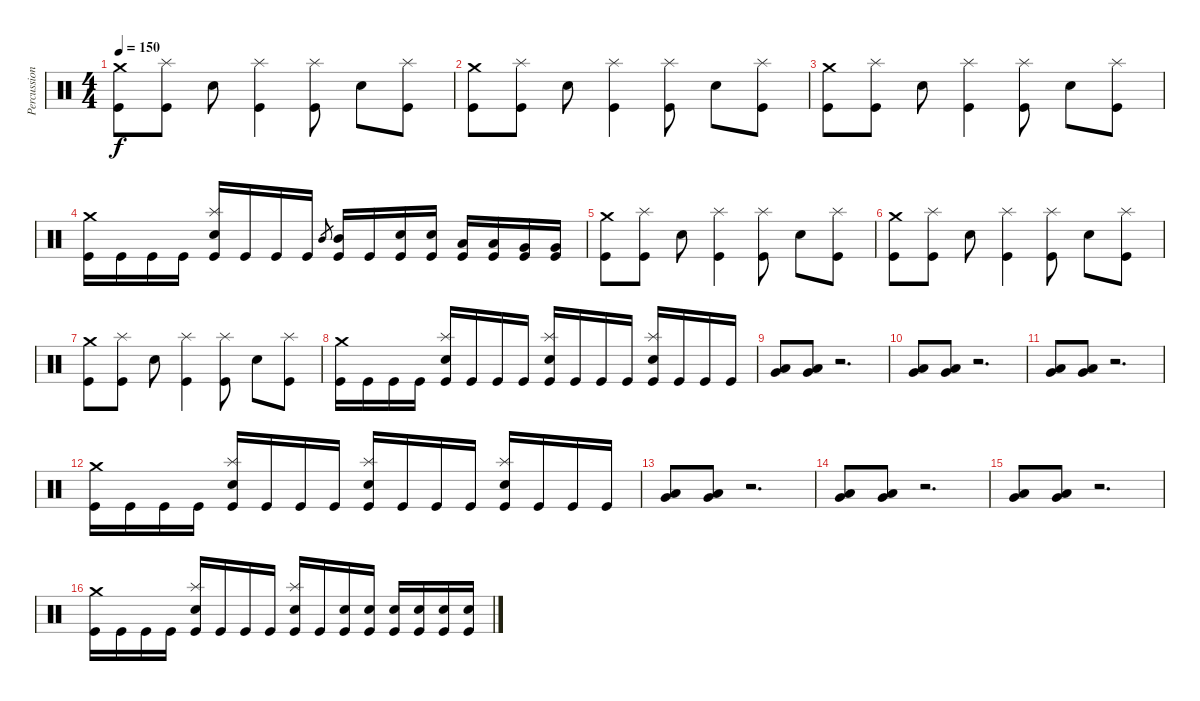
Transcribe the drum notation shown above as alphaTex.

\track ("Percussions" "Percussion") {instrument percussion}
\staff {score}
\articulation defaults
\ts (4 4)
\tempo 150
\clef neutral
\ks c
("Kick (hit)" "Crash medium (hit)").8{dy f} ("Kick (hit)" "Splash (hit)").8 "Electric Snare (hit)".8 ("Kick (hit)" "Splash (hit)").4 ("Kick (hit)" "Splash (hit)").8 "Electric Snare (hit)".8 ("Kick (hit)" "Splash (hit)").8 |
("Kick (hit)" "Crash medium (hit)").8 ("Kick (hit)" "Splash (hit)").8 "Electric Snare (hit)".8 ("Kick (hit)" "Splash (hit)").4 ("Kick (hit)" "Splash (hit)").8 "Electric Snare (hit)".8 ("Kick (hit)" "Splash (hit)").8 |
("Kick (hit)" "Crash medium (hit)").8 ("Kick (hit)" "Splash (hit)").8 "Electric Snare (hit)".8 ("Kick (hit)" "Splash (hit)").4 ("Kick (hit)" "Splash (hit)").8 "Electric Snare (hit)".8 ("Kick (hit)" "Splash (hit)").8 |
("Kick (hit)" "Crash medium (hit)").16 "Kick (hit)".16 "Kick (hit)".16 "Kick (hit)".16 ("Kick (hit)" "Electric Snare (hit)" "Splash (hit)").16 "Kick (hit)".16 "Kick (hit)".16 "Kick (hit)".16 "Mid Tom (hit)".8{gr} ("Kick (hit)" "Mid Tom (hit)").16 "Kick (hit)".16 ("Kick (hit)" "Electric Snare (hit)").16 ("Kick (hit)" "Electric Snare (hit)").16 ("Kick (hit)" "Low Tom (hit)").16 ("Kick (hit)" "Low Tom (hit)").16 ("Kick (hit)" "Very Low Tom (hit)").16 ("Kick (hit)" "Very Low Tom (hit)").16 |
("Kick (hit)" "Crash medium (hit)").8 ("Kick (hit)" "Splash (hit)").8 "Electric Snare (hit)".8 ("Kick (hit)" "Splash (hit)").4 ("Kick (hit)" "Splash (hit)").8 "Electric Snare (hit)".8 ("Kick (hit)" "Splash (hit)").8 |
("Kick (hit)" "Crash medium (hit)").8 ("Kick (hit)" "Splash (hit)").8 "Electric Snare (hit)".8 ("Kick (hit)" "Splash (hit)").4 ("Kick (hit)" "Splash (hit)").8 "Electric Snare (hit)".8 ("Kick (hit)" "Splash (hit)").8 |
("Kick (hit)" "Crash medium (hit)").8 ("Kick (hit)" "Splash (hit)").8 "Electric Snare (hit)".8 ("Kick (hit)" "Splash (hit)").4 ("Kick (hit)" "Splash (hit)").8 "Electric Snare (hit)".8 ("Kick (hit)" "Splash (hit)").8 |
("Kick (hit)" "Crash medium (hit)").16 "Kick (hit)".16 "Kick (hit)".16 "Kick (hit)".16 ("Kick (hit)" "Electric Snare (hit)" "Splash (hit)").16 "Kick (hit)".16 "Kick (hit)".16 "Kick (hit)".16 ("Kick (hit)" "Electric Snare (hit)" "Splash (hit)").16 "Kick (hit)".16 "Kick (hit)".16 "Kick (hit)".16 ("Kick (hit)" "Electric Snare (hit)" "Splash (hit)").16 "Kick (hit)".16 "Kick (hit)".16 "Kick (hit)".16 |
("Low Tom (hit)" "Very Low Tom (hit)").8 ("Low Tom (hit)" "Very Low Tom (hit)").8 r.2{d} |
("Low Tom (hit)" "Very Low Tom (hit)").8 ("Low Tom (hit)" "Very Low Tom (hit)").8 r.2{d} |
("Low Tom (hit)" "Very Low Tom (hit)").8 ("Low Tom (hit)" "Very Low Tom (hit)").8 r.2{d} |
("Kick (hit)" "Crash medium (hit)").16 "Kick (hit)".16 "Kick (hit)".16 "Kick (hit)".16 ("Kick (hit)" "Electric Snare (hit)" "Splash (hit)").16 "Kick (hit)".16 "Kick (hit)".16 "Kick (hit)".16 ("Kick (hit)" "Electric Snare (hit)" "Splash (hit)").16 "Kick (hit)".16 "Kick (hit)".16 "Kick (hit)".16 ("Kick (hit)" "Electric Snare (hit)" "Splash (hit)").16 "Kick (hit)".16 "Kick (hit)".16 "Kick (hit)".16 |
("Low Tom (hit)" "Very Low Tom (hit)").8 ("Low Tom (hit)" "Very Low Tom (hit)").8 r.2{d} |
("Low Tom (hit)" "Very Low Tom (hit)").8 ("Low Tom (hit)" "Very Low Tom (hit)").8 r.2{d} |
("Low Tom (hit)" "Very Low Tom (hit)").8 ("Low Tom (hit)" "Very Low Tom (hit)").8 r.2{d} |
("Kick (hit)" "Crash medium (hit)").16 "Kick (hit)".16 "Kick (hit)".16 "Kick (hit)".16 ("Kick (hit)" "Electric Snare (hit)" "Splash (hit)").16 "Kick (hit)".16 "Kick (hit)".16 "Kick (hit)".16 ("Kick (hit)" "Electric Snare (hit)" "Splash (hit)").16 "Kick (hit)".16 ("Kick (hit)" "Electric Snare (hit)").16 ("Kick (hit)" "Electric Snare (hit)").16 ("Kick (hit)" "Electric Snare (hit)").16 ("Kick (hit)" "Electric Snare (hit)").16 ("Kick (hit)" "Electric Snare (hit)").16 ("Kick (hit)" "Electric Snare (hit)").16
